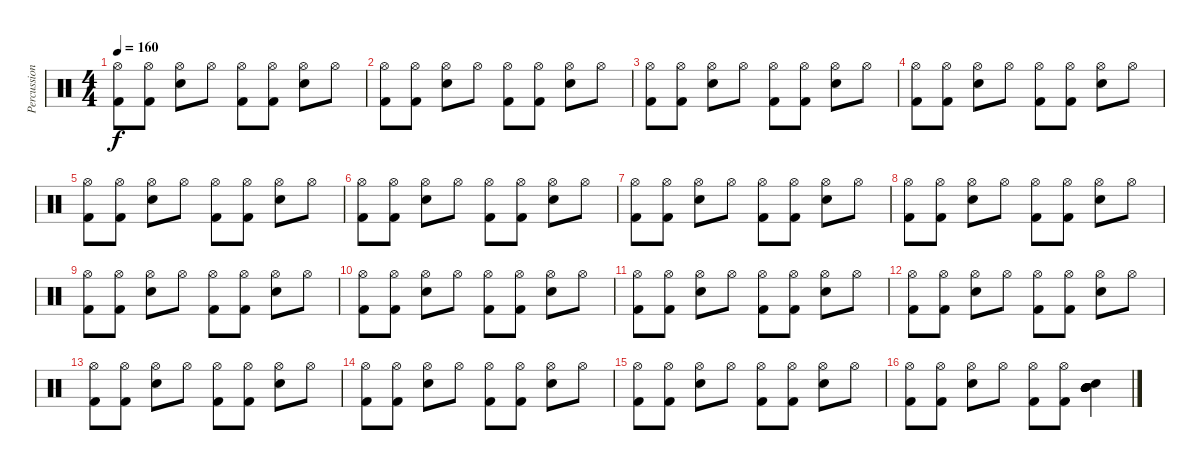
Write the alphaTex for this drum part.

\track ("Percussion" "Percussion") {instrument percussion}
\staff {score}
\articulation defaults
\ts (4 4)
\tempo 160
\clef neutral
\ks c
("Kick (hit) 2" "Hi-Hat (open)").8{dy f} ("Kick (hit) 2" "Hi-Hat (open)").8 ("Snare (hit) 2" "Hi-Hat (open)").8 "Hi-Hat (open)".8 ("Kick (hit) 2" "Hi-Hat (open)").8 ("Kick (hit) 2" "Hi-Hat (open)").8 ("Snare (hit) 2" "Hi-Hat (open)").8 "Hi-Hat (open)".8 |
("Kick (hit) 2" "Hi-Hat (open)").8 ("Kick (hit) 2" "Hi-Hat (open)").8 ("Snare (hit) 2" "Hi-Hat (open)").8 "Hi-Hat (open)".8 ("Kick (hit) 2" "Hi-Hat (open)").8 ("Kick (hit) 2" "Hi-Hat (open)").8 ("Snare (hit) 2" "Hi-Hat (open)").8 "Hi-Hat (open)".8 |
("Kick (hit) 2" "Hi-Hat (open)").8 ("Kick (hit) 2" "Hi-Hat (open)").8 ("Snare (hit) 2" "Hi-Hat (open)").8 "Hi-Hat (open)".8 ("Kick (hit) 2" "Hi-Hat (open)").8 ("Kick (hit) 2" "Hi-Hat (open)").8 ("Snare (hit) 2" "Hi-Hat (open)").8 "Hi-Hat (open)".8 |
("Kick (hit) 2" "Hi-Hat (open)").8 ("Kick (hit) 2" "Hi-Hat (open)").8 ("Snare (hit) 2" "Hi-Hat (open)").8 "Hi-Hat (open)".8 ("Kick (hit) 2" "Hi-Hat (open)").8 ("Kick (hit) 2" "Hi-Hat (open)").8 ("Snare (hit) 2" "Hi-Hat (open)").8 "Hi-Hat (open)".8 |
("Kick (hit) 2" "Hi-Hat (open)").8 ("Kick (hit) 2" "Hi-Hat (open)").8 ("Snare (hit) 2" "Hi-Hat (open)").8 "Hi-Hat (open)".8 ("Kick (hit) 2" "Hi-Hat (open)").8 ("Kick (hit) 2" "Hi-Hat (open)").8 ("Snare (hit) 2" "Hi-Hat (open)").8 "Hi-Hat (open)".8 |
("Kick (hit) 2" "Hi-Hat (open)").8 ("Kick (hit) 2" "Hi-Hat (open)").8 ("Snare (hit) 2" "Hi-Hat (open)").8 "Hi-Hat (open)".8 ("Kick (hit) 2" "Hi-Hat (open)").8 ("Kick (hit) 2" "Hi-Hat (open)").8 ("Snare (hit) 2" "Hi-Hat (open)").8 "Hi-Hat (open)".8 |
("Kick (hit) 2" "Hi-Hat (open)").8 ("Kick (hit) 2" "Hi-Hat (open)").8 ("Snare (hit) 2" "Hi-Hat (open)").8 "Hi-Hat (open)".8 ("Kick (hit) 2" "Hi-Hat (open)").8 ("Kick (hit) 2" "Hi-Hat (open)").8 ("Snare (hit) 2" "Hi-Hat (open)").8 "Hi-Hat (open)".8 |
("Kick (hit) 2" "Hi-Hat (open)").8 ("Kick (hit) 2" "Hi-Hat (open)").8 ("Snare (hit) 2" "Hi-Hat (open)").8 "Hi-Hat (open)".8 ("Kick (hit) 2" "Hi-Hat (open)").8 ("Kick (hit) 2" "Hi-Hat (open)").8 ("Snare (hit) 2" "Hi-Hat (open)").8 "Hi-Hat (open)".8 |
("Kick (hit) 2" "Hi-Hat (open)").8 ("Kick (hit) 2" "Hi-Hat (open)").8 ("Snare (hit) 2" "Hi-Hat (open)").8 "Hi-Hat (open)".8 ("Kick (hit) 2" "Hi-Hat (open)").8 ("Kick (hit) 2" "Hi-Hat (open)").8 ("Snare (hit) 2" "Hi-Hat (open)").8 "Hi-Hat (open)".8 |
("Kick (hit) 2" "Hi-Hat (open)").8 ("Kick (hit) 2" "Hi-Hat (open)").8 ("Snare (hit) 2" "Hi-Hat (open)").8 "Hi-Hat (open)".8 ("Kick (hit) 2" "Hi-Hat (open)").8 ("Kick (hit) 2" "Hi-Hat (open)").8 ("Snare (hit) 2" "Hi-Hat (open)").8 "Hi-Hat (open)".8 |
("Kick (hit) 2" "Hi-Hat (open)").8 ("Kick (hit) 2" "Hi-Hat (open)").8 ("Snare (hit) 2" "Hi-Hat (open)").8 "Hi-Hat (open)".8 ("Kick (hit) 2" "Hi-Hat (open)").8 ("Kick (hit) 2" "Hi-Hat (open)").8 ("Snare (hit) 2" "Hi-Hat (open)").8 "Hi-Hat (open)".8 |
("Kick (hit) 2" "Hi-Hat (open)").8 ("Kick (hit) 2" "Hi-Hat (open)").8 ("Snare (hit) 2" "Hi-Hat (open)").8 "Hi-Hat (open)".8 ("Kick (hit) 2" "Hi-Hat (open)").8 ("Kick (hit) 2" "Hi-Hat (open)").8 ("Snare (hit) 2" "Hi-Hat (open)").8 "Hi-Hat (open)".8 |
("Kick (hit) 2" "Hi-Hat (open)").8 ("Kick (hit) 2" "Hi-Hat (open)").8 ("Snare (hit) 2" "Hi-Hat (open)").8 "Hi-Hat (open)".8 ("Kick (hit) 2" "Hi-Hat (open)").8 ("Kick (hit) 2" "Hi-Hat (open)").8 ("Snare (hit) 2" "Hi-Hat (open)").8 "Hi-Hat (open)".8 |
("Kick (hit) 2" "Hi-Hat (open)").8 ("Kick (hit) 2" "Hi-Hat (open)").8 ("Snare (hit) 2" "Hi-Hat (open)").8 "Hi-Hat (open)".8 ("Kick (hit) 2" "Hi-Hat (open)").8 ("Kick (hit) 2" "Hi-Hat (open)").8 ("Snare (hit) 2" "Hi-Hat (open)").8 "Hi-Hat (open)".8 |
("Kick (hit) 2" "Hi-Hat (open)").8 ("Kick (hit) 2" "Hi-Hat (open)").8 ("Snare (hit) 2" "Hi-Hat (open)").8 "Hi-Hat (open)".8 ("Kick (hit) 2" "Hi-Hat (open)").8 ("Kick (hit) 2" "Hi-Hat (open)").8 ("Snare (hit) 2" "Hi-Hat (open)").8 "Hi-Hat (open)".8 |
("Kick (hit) 2" "Hi-Hat (open)").8 ("Kick (hit) 2" "Hi-Hat (open)").8 ("Snare (hit) 2" "Hi-Hat (open)").8 "Hi-Hat (open)".8 ("Kick (hit) 2" "Hi-Hat (open)").8 ("Kick (hit) 2" "Hi-Hat (open)").8 ("Snare (hit) 2" "Mid Tom (hit)" "Mid Tom (hit)" "Mid Tom (hit)" "Mid Tom (hit)" "Mid Tom (hit)").4
